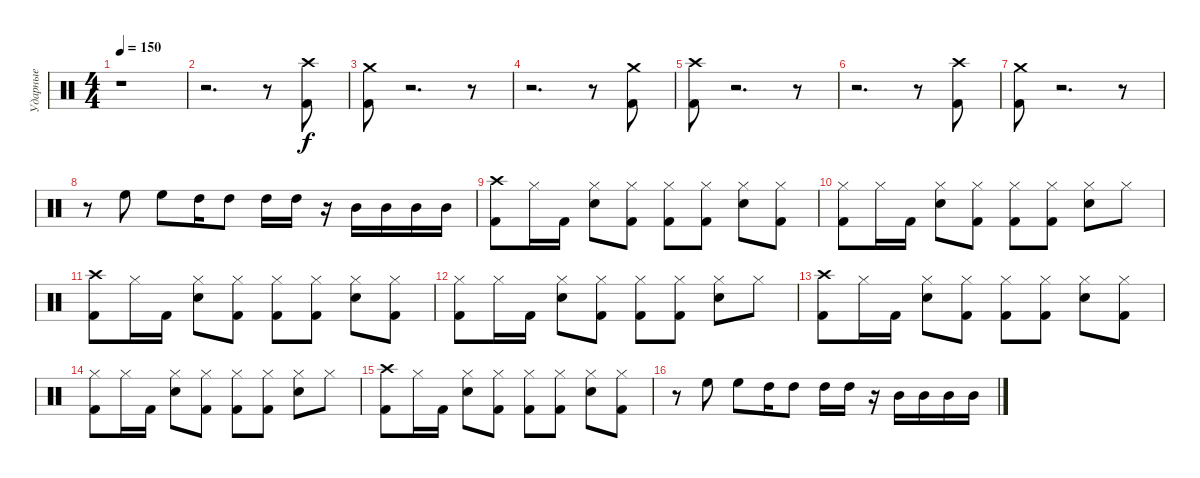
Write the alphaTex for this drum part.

\track ("Ударные" "Ударные") {instrument percussion}
\staff {score}
\articulation defaults
\ts (4 4)
\tempo 150
\clef neutral
\ks c
r.1{dy f} |
r.2{d} r.8 ("Crash high (hit)" "Kick (hit) 2").8 |
("Crash medium (hit)" "Kick (hit) 2").8 r.2{d} r.8 |
r.2{d} r.8 ("Crash medium (hit)" "Kick (hit) 2").8 |
("Crash high (hit)" "Kick (hit) 2").8 r.2{d} r.8 |
r.2{d} r.8 ("Crash high (hit)" "Kick (hit) 2").8 |
("Crash medium (hit)" "Kick (hit) 2").8 r.2{d} r.8 |
r.8 "High Floor Tom (hit)".8 "High Floor Tom (hit)".8 "High Tom (hit)".16 "High Tom (hit)".8 "High Tom (hit)".16 "High Tom (hit)".16 r.16 "Mid Tom (hit)".16 "Mid Tom (hit)".16 "Mid Tom (hit)".16 "Mid Tom (hit)".16 |
("Crash high (hit)" "Kick (hit) 2").8 "Hi-Hat (closed)".16 "Kick (hit) 2".16 ("Hi-Hat (closed)" "Snare (hit) 2").8 ("Hi-Hat (closed)" "Kick (hit) 2").8 ("Hi-Hat (closed)" "Kick (hit) 2").8 ("Kick (hit) 2" "Hi-Hat (closed)").8 ("Hi-Hat (closed)" "Snare (hit) 2").8 ("Kick (hit) 2" "Hi-Hat (closed)").8 |
("Kick (hit) 2" "Hi-Hat (closed)").8 "Hi-Hat (closed)".16 "Kick (hit) 2".16 ("Snare (hit) 2" "Hi-Hat (closed)").8 ("Hi-Hat (closed)" "Kick (hit) 2").8 ("Hi-Hat (closed)" "Kick (hit) 2").8 ("Kick (hit) 2" "Hi-Hat (closed)").8 ("Hi-Hat (closed)" "Snare (hit) 2").8 "Hi-Hat (closed)".8 |
("Crash high (hit)" "Kick (hit) 2").8 "Hi-Hat (closed)".16 "Kick (hit) 2".16 ("Hi-Hat (closed)" "Snare (hit) 2").8 ("Hi-Hat (closed)" "Kick (hit) 2").8 ("Hi-Hat (closed)" "Kick (hit) 2").8 ("Kick (hit) 2" "Hi-Hat (closed)").8 ("Hi-Hat (closed)" "Snare (hit) 2").8 ("Kick (hit) 2" "Hi-Hat (closed)").8 |
("Kick (hit) 2" "Hi-Hat (closed)").8 "Hi-Hat (closed)".16 "Kick (hit) 2".16 ("Snare (hit) 2" "Hi-Hat (closed)").8 ("Hi-Hat (closed)" "Kick (hit) 2").8 ("Hi-Hat (closed)" "Kick (hit) 2").8 ("Kick (hit) 2" "Hi-Hat (closed)").8 ("Hi-Hat (closed)" "Snare (hit) 2").8 "Hi-Hat (closed)".8 |
("Crash high (hit)" "Kick (hit) 2").8 "Hi-Hat (closed)".16 "Kick (hit) 2".16 ("Hi-Hat (closed)" "Snare (hit) 2").8 ("Hi-Hat (closed)" "Kick (hit) 2").8 ("Hi-Hat (closed)" "Kick (hit) 2").8 ("Kick (hit) 2" "Hi-Hat (closed)").8 ("Hi-Hat (closed)" "Snare (hit) 2").8 ("Kick (hit) 2" "Hi-Hat (closed)").8 |
("Kick (hit) 2" "Hi-Hat (closed)").8 "Hi-Hat (closed)".16 "Kick (hit) 2".16 ("Snare (hit) 2" "Hi-Hat (closed)").8 ("Hi-Hat (closed)" "Kick (hit) 2").8 ("Hi-Hat (closed)" "Kick (hit) 2").8 ("Kick (hit) 2" "Hi-Hat (closed)").8 ("Hi-Hat (closed)" "Snare (hit) 2").8 "Hi-Hat (closed)".8 |
("Crash high (hit)" "Kick (hit) 2").8 "Hi-Hat (closed)".16 "Kick (hit) 2".16 ("Hi-Hat (closed)" "Snare (hit) 2").8 ("Hi-Hat (closed)" "Kick (hit) 2").8 ("Hi-Hat (closed)" "Kick (hit) 2").8 ("Kick (hit) 2" "Hi-Hat (closed)").8 ("Hi-Hat (closed)" "Snare (hit) 2").8 ("Kick (hit) 2" "Hi-Hat (closed)").8 |
r.8 "High Floor Tom (hit)".8 "High Floor Tom (hit)".8 "High Tom (hit)".16 "High Tom (hit)".8 "High Tom (hit)".16 "High Tom (hit)".16 r.16 "Mid Tom (hit)".16 "Mid Tom (hit)".16 "Mid Tom (hit)".16 "Mid Tom (hit)".16
